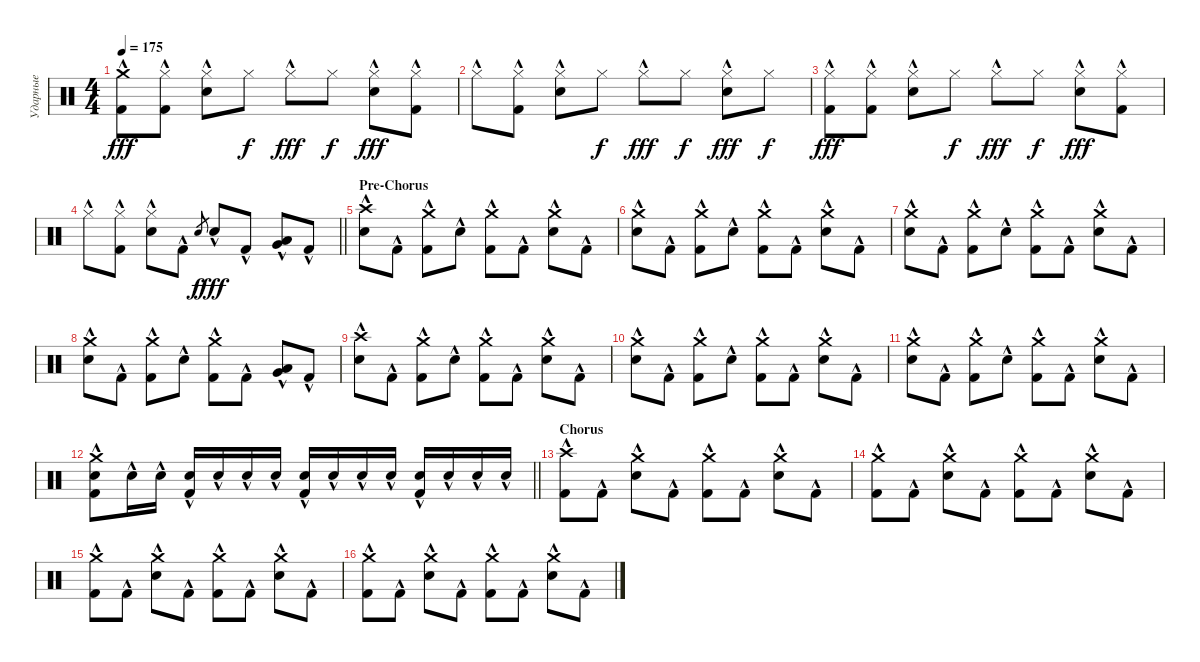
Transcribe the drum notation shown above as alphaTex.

\track ("Ударные" "Ударные") {instrument percussion}
\staff {score}
\articulation defaults
\ts (4 4)
\tempo 175
\clef neutral
\ks c
("Crash medium (hit)"{hac} "Kick (hit) 2"{hac}).8{dy fff} ("Hi-Hat (closed)" "Kick (hit) 2"{hac}).8 ("Hi-Hat (closed)"{hac} "Snare (hit) 2"{hac}).8 "Hi-Hat (closed)".8{dy f} "Hi-Hat (closed)"{hac}.8{dy fff} "Hi-Hat (closed)".8{dy f} ("Hi-Hat (closed)"{hac} "Snare (hit) 2"{hac}).8{dy fff} ("Hi-Hat (closed)" "Kick (hit) 2"{hac}).8 |
"Hi-Hat (closed)"{hac}.8 ("Hi-Hat (closed)" "Kick (hit) 2"{hac}).8 ("Hi-Hat (closed)"{hac} "Snare (hit) 2"{hac}).8 "Hi-Hat (closed)".8{dy f} "Hi-Hat (closed)"{hac}.8{dy fff} "Hi-Hat (closed)".8{dy f} ("Hi-Hat (closed)"{hac} "Snare (hit) 2"{hac}).8{dy fff} "Hi-Hat (closed)".8{dy f} |
("Hi-Hat (closed)"{hac} "Kick (hit) 2"{hac}).8{dy fff} ("Hi-Hat (closed)" "Kick (hit) 2"{hac}).8 ("Hi-Hat (closed)"{hac} "Snare (hit) 2"{hac}).8 "Hi-Hat (closed)".8{dy f} "Hi-Hat (closed)"{hac}.8{dy fff} "Hi-Hat (closed)".8{dy f} ("Hi-Hat (closed)"{hac} "Snare (hit) 2"{hac}).8{dy fff} ("Hi-Hat (closed)" "Kick (hit) 2"{hac}).8 |
\barLineRight lightlight "Hi-Hat (closed)"{hac}.8
("Hi-Hat (closed)" "Kick (hit) 2"{hac}).8 ("Hi-Hat (closed)"{hac} "Snare (hit) 2"{hac}).8 "Kick (hit) 2"{hac}.8 "Snare (hit) 2".8{gr dy f} "Snare (hit) 2"{hac}.8{dy fff} "Kick (hit) 2"{hac}.8 ("Very Low Tom (hit)"{hac} "Low Floor Tom (hit)"{hac}).8 "Kick (hit) 2"{hac}.8 |
\section ("" "Pre-Chorus")
("Crash high (hit)"{hac} "Snare (hit) 2"{hac}).8 "Kick (hit) 2"{hac}.8 ("Crash medium (hit)"{hac} "Kick (hit) 2"{hac}).8 "Snare (hit) 2"{hac}.8 ("Crash medium (hit)"{hac} "Kick (hit) 2"{hac}).8 "Kick (hit) 2"{hac}.8 ("Crash medium (hit)"{hac} "Snare (hit) 2"{hac}).8 "Kick (hit) 2"{hac}.8 |
("Crash medium (hit)"{hac} "Snare (hit) 2"{hac}).8 "Kick (hit) 2"{hac}.8 ("Crash medium (hit)"{hac} "Kick (hit) 2"{hac}).8 "Snare (hit) 2"{hac}.8 ("Crash medium (hit)"{hac} "Kick (hit) 2"{hac}).8 "Kick (hit) 2"{hac}.8 ("Crash medium (hit)"{hac} "Snare (hit) 2"{hac}).8 "Kick (hit) 2"{hac}.8 |
("Crash medium (hit)"{hac} "Snare (hit) 2"{hac}).8 "Kick (hit) 2"{hac}.8 ("Crash medium (hit)"{hac} "Kick (hit) 2"{hac}).8 "Snare (hit) 2"{hac}.8 ("Crash medium (hit)"{hac} "Kick (hit) 2"{hac}).8 "Kick (hit) 2"{hac}.8 ("Crash medium (hit)"{hac} "Snare (hit) 2"{hac}).8 "Kick (hit) 2"{hac}.8 |
("Crash medium (hit)"{hac} "Snare (hit) 2"{hac}).8 "Kick (hit) 2"{hac}.8 ("Crash medium (hit)"{hac} "Kick (hit) 2"{hac}).8 "Snare (hit) 2"{hac}.8 ("Crash medium (hit)"{hac} "Kick (hit) 2"{hac}).8 "Kick (hit) 2"{hac}.8 ("Very Low Tom (hit)"{hac} "Low Floor Tom (hit)"{hac}).8 "Kick (hit) 2"{hac}.8 |
("Crash high (hit)"{hac} "Snare (hit) 2"{hac}).8 "Kick (hit) 2"{hac}.8 ("Crash medium (hit)"{hac} "Kick (hit) 2"{hac}).8 "Snare (hit) 2"{hac}.8 ("Crash medium (hit)"{hac} "Kick (hit) 2"{hac}).8 "Kick (hit) 2"{hac}.8 ("Crash medium (hit)"{hac} "Snare (hit) 2"{hac}).8 "Kick (hit) 2"{hac}.8 |
("Crash medium (hit)"{hac} "Snare (hit) 2"{hac}).8 "Kick (hit) 2"{hac}.8 ("Crash medium (hit)"{hac} "Kick (hit) 2"{hac}).8 "Snare (hit) 2"{hac}.8 ("Crash medium (hit)"{hac} "Kick (hit) 2"{hac}).8 "Kick (hit) 2"{hac}.8 ("Crash medium (hit)"{hac} "Snare (hit) 2"{hac}).8 "Kick (hit) 2"{hac}.8 |
("Crash medium (hit)"{hac} "Snare (hit) 2"{hac}).8 "Kick (hit) 2"{hac}.8 ("Crash medium (hit)"{hac} "Kick (hit) 2"{hac}).8 "Snare (hit) 2"{hac}.8 ("Crash medium (hit)"{hac} "Kick (hit) 2"{hac}).8 "Kick (hit) 2"{hac}.8 ("Crash medium (hit)"{hac} "Snare (hit) 2"{hac}).8 "Kick (hit) 2"{hac}.8 |
\barLineRight lightlight
("Crash medium (hit)"{hac} "Snare (hit) 2"{hac} "Kick (hit) 2"{hac}).8 "Snare (hit) 2"{hac}.16 "Snare (hit) 2"{hac}.16 ("Snare (hit) 2"{hac} "Kick (hit) 2"{hac}).16 "Snare (hit) 2"{hac}.16 "Snare (hit) 2"{hac}.16 "Snare (hit) 2"{hac}.16 ("Snare (hit) 2"{hac} "Kick (hit) 2"{hac}).16 "Snare (hit) 2"{hac}.16 "Snare (hit) 2"{hac}.16 "Snare (hit) 2"{hac}.16 ("Snare (hit) 2"{hac} "Kick (hit) 2"{hac}).16 "Snare (hit) 2"{hac}.16 "Snare (hit) 2"{hac}.16 "Snare (hit) 2"{hac}.16 |
\section ("" "Chorus")
("Crash high (hit)"{hac} "Kick (hit) 2"{hac}).8 "Kick (hit) 2"{hac}.8 ("Crash medium (hit)"{hac} "Snare (hit) 2"{hac}).8 "Kick (hit) 2"{hac}.8 ("Crash medium (hit)"{hac} "Kick (hit) 2"{hac}).8 "Kick (hit) 2"{hac}.8 ("Crash medium (hit)"{hac} "Snare (hit) 2"{hac}).8 "Kick (hit) 2"{hac}.8 |
("Crash medium (hit)"{hac} "Kick (hit) 2"{hac}).8 "Kick (hit) 2"{hac}.8 ("Crash medium (hit)"{hac} "Snare (hit) 2"{hac}).8 "Kick (hit) 2"{hac}.8 ("Crash medium (hit)"{hac} "Kick (hit) 2"{hac}).8 "Kick (hit) 2"{hac}.8 ("Crash medium (hit)"{hac} "Snare (hit) 2"{hac}).8 "Kick (hit) 2"{hac}.8 |
("Crash medium (hit)"{hac} "Kick (hit) 2"{hac}).8 "Kick (hit) 2"{hac}.8 ("Crash medium (hit)"{hac} "Snare (hit) 2"{hac}).8 "Kick (hit) 2"{hac}.8 ("Crash medium (hit)"{hac} "Kick (hit) 2"{hac}).8 "Kick (hit) 2"{hac}.8 ("Crash medium (hit)"{hac} "Snare (hit) 2"{hac}).8 "Kick (hit) 2"{hac}.8 |
("Crash medium (hit)"{hac} "Kick (hit) 2"{hac}).8 "Kick (hit) 2"{hac}.8 ("Crash medium (hit)"{hac} "Snare (hit) 2"{hac}).8 "Kick (hit) 2"{hac}.8 ("Crash medium (hit)"{hac} "Kick (hit) 2"{hac}).8 "Kick (hit) 2"{hac}.8 ("Crash medium (hit)"{hac} "Snare (hit) 2"{hac}).8 "Kick (hit) 2"{hac}.8
